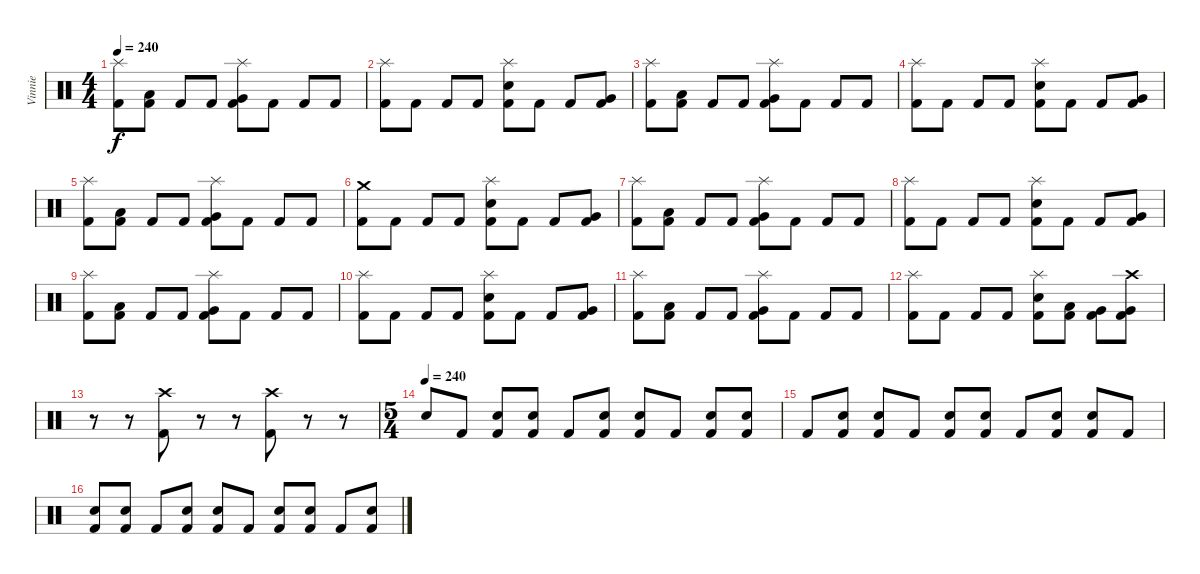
\track ("Vinnie" "Vinnie") {instrument percussion}
\staff {score}
\articulation defaults
\ts (4 4)
\tempo 240
\clef neutral
\ks c
("Splash (hit)" "Kick (hit) 2").8{dy f} ("Low Tom (hit)" "Kick (hit) 2").8 "Kick (hit) 2".8 "Kick (hit) 2".8 ("Splash (hit)" "Very Low Tom (hit)" "Kick (hit) 2").8 "Kick (hit) 2".8 "Kick (hit) 2".8 "Kick (hit) 2".8 |
("Splash (hit)" "Kick (hit) 2").8 "Kick (hit) 2".8 "Kick (hit) 2".8 "Kick (hit) 2".8 ("Splash (hit)" "Electric Snare (hit)" "Kick (hit) 2").8 "Kick (hit) 2".8 "Kick (hit) 2".8 ("Very Low Tom (hit)" "Kick (hit) 2").8 |
("Splash (hit)" "Kick (hit) 2").8 ("Low Tom (hit)" "Kick (hit) 2").8 "Kick (hit) 2".8 "Kick (hit) 2".8 ("Splash (hit)" "Very Low Tom (hit)" "Kick (hit) 2").8 "Kick (hit) 2".8 "Kick (hit) 2".8 "Kick (hit) 2".8 |
("Splash (hit)" "Kick (hit) 2").8 "Kick (hit) 2".8 "Kick (hit) 2".8 "Kick (hit) 2".8 ("Splash (hit)" "Electric Snare (hit)" "Kick (hit) 2").8 "Kick (hit) 2".8 "Kick (hit) 2".8 ("Very Low Tom (hit)" "Kick (hit) 2").8 |
("Splash (hit)" "Kick (hit) 2").8 ("Low Tom (hit)" "Kick (hit) 2").8 "Kick (hit) 2".8 "Kick (hit) 2".8 ("Splash (hit)" "Very Low Tom (hit)" "Kick (hit) 2").8 "Kick (hit) 2".8 "Kick (hit) 2".8 "Kick (hit) 2".8 |
("Crash medium (hit)" "Kick (hit) 2").8 "Kick (hit) 2".8 "Kick (hit) 2".8 "Kick (hit) 2".8 ("Splash (hit)" "Electric Snare (hit)" "Kick (hit) 2").8 "Kick (hit) 2".8 "Kick (hit) 2".8 ("Very Low Tom (hit)" "Kick (hit) 2").8 |
("Splash (hit)" "Kick (hit) 2").8 ("Low Tom (hit)" "Kick (hit) 2").8 "Kick (hit) 2".8 "Kick (hit) 2".8 ("Splash (hit)" "Very Low Tom (hit)" "Kick (hit) 2").8 "Kick (hit) 2".8 "Kick (hit) 2".8 "Kick (hit) 2".8 |
("Splash (hit)" "Kick (hit) 2").8 "Kick (hit) 2".8 "Kick (hit) 2".8 "Kick (hit) 2".8 ("Splash (hit)" "Electric Snare (hit)" "Kick (hit) 2").8 "Kick (hit) 2".8 "Kick (hit) 2".8 ("Very Low Tom (hit)" "Kick (hit) 2").8 |
("Splash (hit)" "Kick (hit) 2").8 ("Low Tom (hit)" "Kick (hit) 2").8 "Kick (hit) 2".8 "Kick (hit) 2".8 ("Splash (hit)" "Very Low Tom (hit)" "Kick (hit) 2").8 "Kick (hit) 2".8 "Kick (hit) 2".8 "Kick (hit) 2".8 |
("Splash (hit)" "Kick (hit) 2").8 "Kick (hit) 2".8 "Kick (hit) 2".8 "Kick (hit) 2".8 ("Splash (hit)" "Electric Snare (hit)" "Kick (hit) 2").8 "Kick (hit) 2".8 "Kick (hit) 2".8 ("Very Low Tom (hit)" "Kick (hit) 2").8 |
("Splash (hit)" "Kick (hit) 2").8 ("Low Tom (hit)" "Kick (hit) 2").8 "Kick (hit) 2".8 "Kick (hit) 2".8 ("Splash (hit)" "Very Low Tom (hit)" "Kick (hit) 2").8 "Kick (hit) 2".8 "Kick (hit) 2".8 "Kick (hit) 2".8 |
("Splash (hit)" "Kick (hit) 2").8 "Kick (hit) 2".8 "Kick (hit) 2".8 "Kick (hit) 2".8 ("Splash (hit)" "Electric Snare (hit)" "Kick (hit) 2").8 ("Low Tom (hit)" "Kick (hit) 2").8 ("Very Low Tom (hit)" "Kick (hit) 2").8 ("Crash high (hit)" "Very Low Tom (hit)" "Kick (hit) 2").8 |
r.8 r.8 ("Crash high (hit)" "Kick (hit) 2").8 r.8 r.8 ("Crash high (hit)" "Kick (hit) 2").8 r.8 r.8 |
\ts (5 4)
\tempo 280
\tempo (240)
"Electric Snare (hit)".8 "Kick (hit) 2".8 ("Electric Snare (hit)" "Kick (hit) 2").8 ("Electric Snare (hit)" "Kick (hit) 2").8 "Kick (hit) 2".8 ("Electric Snare (hit)" "Kick (hit) 2").8 ("Electric Snare (hit)" "Kick (hit) 2").8 "Kick (hit) 2".8 ("Electric Snare (hit)" "Kick (hit) 2").8 ("Electric Snare (hit)" "Kick (hit) 2").8 |
"Kick (hit) 2".8 ("Electric Snare (hit)" "Kick (hit) 2").8 ("Electric Snare (hit)" "Kick (hit) 2").8 "Kick (hit) 2".8 ("Electric Snare (hit)" "Kick (hit) 2").8 ("Electric Snare (hit)" "Kick (hit) 2").8 "Kick (hit) 2".8 ("Electric Snare (hit)" "Kick (hit) 2").8 ("Electric Snare (hit)" "Kick (hit) 2").8 "Kick (hit) 2".8 |
("Electric Snare (hit)" "Kick (hit) 2").8 ("Electric Snare (hit)" "Kick (hit) 2").8 "Kick (hit) 2".8 ("Electric Snare (hit)" "Kick (hit) 2").8 ("Electric Snare (hit)" "Kick (hit) 2").8 "Kick (hit) 2".8 ("Electric Snare (hit)" "Kick (hit) 2").8 ("Electric Snare (hit)" "Kick (hit) 2").8 "Kick (hit) 2".8 ("Electric Snare (hit)" "Kick (hit) 2").8
